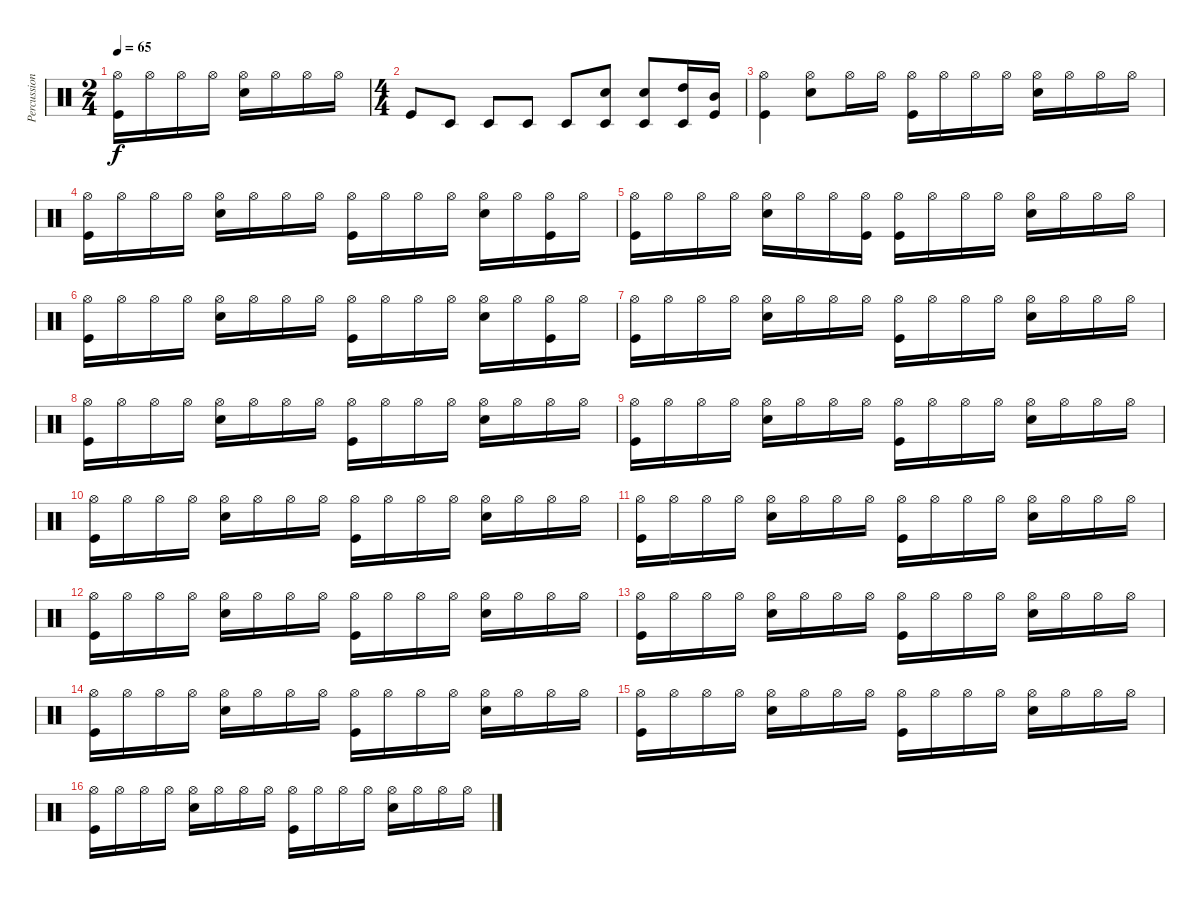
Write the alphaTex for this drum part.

\track ("Percussions" "Percussion") {instrument percussion}
\staff {score}
\articulation defaults
\ts (2 4)
\tempo 65
\clef neutral
\ks c
("Hi-Hat (open)" "Kick (hit)").16{dy f} "Hi-Hat (open)".16 "Hi-Hat (open)".16 "Hi-Hat (open)".16 ("Hi-Hat (open)" "Snare (hit) 2").16 "Hi-Hat (open)".16 "Hi-Hat (open)".16 "Hi-Hat (open)".16 |
\ts (4 4)
"Kick (hit)".8 "Timbale low (hit)".8 "Timbale low (hit)".8 "Timbale low (hit)".8 "Timbale low (hit)".8 ("Snare (hit) 2" "Timbale low (hit)").8 ("Snare (hit) 2" "Timbale low (hit)").8 ("High Tom (hit)" "Timbale low (hit)").16 ("Mid Tom (hit)" "Kick (hit)").16 |
("Hi-Hat (open)" "Kick (hit)").4 ("Hi-Hat (open)" "Snare (hit) 2").8 "Hi-Hat (open)".16 "Hi-Hat (open)".16 ("Hi-Hat (open)" "Kick (hit)").16 "Hi-Hat (open)".16 "Hi-Hat (open)".16 "Hi-Hat (open)".16 ("Hi-Hat (open)" "Snare (hit) 2").16 "Hi-Hat (open)".16 "Hi-Hat (open)".16 "Hi-Hat (open)".16 |
("Hi-Hat (open)" "Kick (hit)").16 "Hi-Hat (open)".16 "Hi-Hat (open)".16 "Hi-Hat (open)".16 ("Hi-Hat (open)" "Snare (hit) 2").16 "Hi-Hat (open)".16 "Hi-Hat (open)".16 "Hi-Hat (open)".16 ("Hi-Hat (open)" "Kick (hit)").16 "Hi-Hat (open)".16 "Hi-Hat (open)".16 "Hi-Hat (open)".16 ("Hi-Hat (open)" "Snare (hit) 2").16 "Hi-Hat (open)".16 ("Hi-Hat (open)" "Kick (hit)").16 "Hi-Hat (open)".16 |
("Hi-Hat (open)" "Kick (hit)").16 "Hi-Hat (open)".16 "Hi-Hat (open)".16 "Hi-Hat (open)".16 ("Hi-Hat (open)" "Snare (hit) 2").16 "Hi-Hat (open)".16 "Hi-Hat (open)".16 ("Hi-Hat (open)" "Kick (hit)").16 ("Hi-Hat (open)" "Kick (hit)").16 "Hi-Hat (open)".16 "Hi-Hat (open)".16 "Hi-Hat (open)".16 ("Hi-Hat (open)" "Snare (hit) 2").16 "Hi-Hat (open)".16 "Hi-Hat (open)".16 "Hi-Hat (open)".16 |
("Hi-Hat (open)" "Kick (hit)").16 "Hi-Hat (open)".16 "Hi-Hat (open)".16 "Hi-Hat (open)".16 ("Hi-Hat (open)" "Snare (hit) 2").16 "Hi-Hat (open)".16 "Hi-Hat (open)".16 "Hi-Hat (open)".16 ("Hi-Hat (open)" "Kick (hit)").16 "Hi-Hat (open)".16 "Hi-Hat (open)".16 "Hi-Hat (open)".16 ("Hi-Hat (open)" "Snare (hit) 2").16 "Hi-Hat (open)".16 ("Hi-Hat (open)" "Kick (hit)").16 "Hi-Hat (open)".16 |
("Hi-Hat (open)" "Kick (hit)").16 "Hi-Hat (open)".16 "Hi-Hat (open)".16 "Hi-Hat (open)".16 ("Hi-Hat (open)" "Snare (hit) 2").16 "Hi-Hat (open)".16 "Hi-Hat (open)".16 "Hi-Hat (open)".16 ("Hi-Hat (open)" "Kick (hit)").16 "Hi-Hat (open)".16 "Hi-Hat (open)".16 "Hi-Hat (open)".16 ("Hi-Hat (open)" "Snare (hit) 2").16 "Hi-Hat (open)".16 "Hi-Hat (open)".16 "Hi-Hat (open)".16 |
("Hi-Hat (open)" "Kick (hit)").16 "Hi-Hat (open)".16 "Hi-Hat (open)".16 "Hi-Hat (open)".16 ("Hi-Hat (open)" "Snare (hit) 2").16 "Hi-Hat (open)".16 "Hi-Hat (open)".16 "Hi-Hat (open)".16 ("Hi-Hat (open)" "Kick (hit)").16 "Hi-Hat (open)".16 "Hi-Hat (open)".16 "Hi-Hat (open)".16 ("Hi-Hat (open)" "Snare (hit) 2").16 "Hi-Hat (open)".16 "Hi-Hat (open)".16 "Hi-Hat (open)".16 |
("Hi-Hat (open)" "Kick (hit)").16 "Hi-Hat (open)".16 "Hi-Hat (open)".16 "Hi-Hat (open)".16 ("Hi-Hat (open)" "Snare (hit) 2").16 "Hi-Hat (open)".16 "Hi-Hat (open)".16 "Hi-Hat (open)".16 ("Hi-Hat (open)" "Kick (hit)").16 "Hi-Hat (open)".16 "Hi-Hat (open)".16 "Hi-Hat (open)".16 ("Hi-Hat (open)" "Snare (hit) 2").16 "Hi-Hat (open)".16 "Hi-Hat (open)".16 "Hi-Hat (open)".16 |
("Hi-Hat (open)" "Kick (hit)").16 "Hi-Hat (open)".16 "Hi-Hat (open)".16 "Hi-Hat (open)".16 ("Hi-Hat (open)" "Snare (hit) 2").16 "Hi-Hat (open)".16 "Hi-Hat (open)".16 "Hi-Hat (open)".16 ("Hi-Hat (open)" "Kick (hit)").16 "Hi-Hat (open)".16 "Hi-Hat (open)".16 "Hi-Hat (open)".16 ("Hi-Hat (open)" "Snare (hit) 2").16 "Hi-Hat (open)".16 "Hi-Hat (open)".16 "Hi-Hat (open)".16 |
("Hi-Hat (open)" "Kick (hit)").16 "Hi-Hat (open)".16 "Hi-Hat (open)".16 "Hi-Hat (open)".16 ("Hi-Hat (open)" "Snare (hit) 2").16 "Hi-Hat (open)".16 "Hi-Hat (open)".16 "Hi-Hat (open)".16 ("Hi-Hat (open)" "Kick (hit)").16 "Hi-Hat (open)".16 "Hi-Hat (open)".16 "Hi-Hat (open)".16 ("Hi-Hat (open)" "Snare (hit) 2").16 "Hi-Hat (open)".16 "Hi-Hat (open)".16 "Hi-Hat (open)".16 |
("Hi-Hat (open)" "Kick (hit)").16 "Hi-Hat (open)".16 "Hi-Hat (open)".16 "Hi-Hat (open)".16 ("Hi-Hat (open)" "Snare (hit) 2").16 "Hi-Hat (open)".16 "Hi-Hat (open)".16 "Hi-Hat (open)".16 ("Hi-Hat (open)" "Kick (hit)").16 "Hi-Hat (open)".16 "Hi-Hat (open)".16 "Hi-Hat (open)".16 ("Hi-Hat (open)" "Snare (hit) 2").16 "Hi-Hat (open)".16 "Hi-Hat (open)".16 "Hi-Hat (open)".16 |
("Hi-Hat (open)" "Kick (hit)").16 "Hi-Hat (open)".16 "Hi-Hat (open)".16 "Hi-Hat (open)".16 ("Hi-Hat (open)" "Snare (hit) 2").16 "Hi-Hat (open)".16 "Hi-Hat (open)".16 "Hi-Hat (open)".16 ("Hi-Hat (open)" "Kick (hit)").16 "Hi-Hat (open)".16 "Hi-Hat (open)".16 "Hi-Hat (open)".16 ("Hi-Hat (open)" "Snare (hit) 2").16 "Hi-Hat (open)".16 "Hi-Hat (open)".16 "Hi-Hat (open)".16 |
("Hi-Hat (open)" "Kick (hit)").16 "Hi-Hat (open)".16 "Hi-Hat (open)".16 "Hi-Hat (open)".16 ("Hi-Hat (open)" "Snare (hit) 2").16 "Hi-Hat (open)".16 "Hi-Hat (open)".16 "Hi-Hat (open)".16 ("Hi-Hat (open)" "Kick (hit)").16 "Hi-Hat (open)".16 "Hi-Hat (open)".16 "Hi-Hat (open)".16 ("Hi-Hat (open)" "Snare (hit) 2").16 "Hi-Hat (open)".16 "Hi-Hat (open)".16 "Hi-Hat (open)".16 |
("Hi-Hat (open)" "Kick (hit)").16 "Hi-Hat (open)".16 "Hi-Hat (open)".16 "Hi-Hat (open)".16 ("Hi-Hat (open)" "Snare (hit) 2").16 "Hi-Hat (open)".16 "Hi-Hat (open)".16 "Hi-Hat (open)".16 ("Hi-Hat (open)" "Kick (hit)").16 "Hi-Hat (open)".16 "Hi-Hat (open)".16 "Hi-Hat (open)".16 ("Hi-Hat (open)" "Snare (hit) 2").16 "Hi-Hat (open)".16 "Hi-Hat (open)".16 "Hi-Hat (open)".16 |
("Hi-Hat (open)" "Kick (hit)").16 "Hi-Hat (open)".16 "Hi-Hat (open)".16 "Hi-Hat (open)".16 ("Hi-Hat (open)" "Snare (hit) 2").16 "Hi-Hat (open)".16 "Hi-Hat (open)".16 "Hi-Hat (open)".16 ("Hi-Hat (open)" "Kick (hit)").16 "Hi-Hat (open)".16 "Hi-Hat (open)".16 "Hi-Hat (open)".16 ("Hi-Hat (open)" "Snare (hit) 2").16 "Hi-Hat (open)".16 "Hi-Hat (open)".16 "Hi-Hat (open)".16
